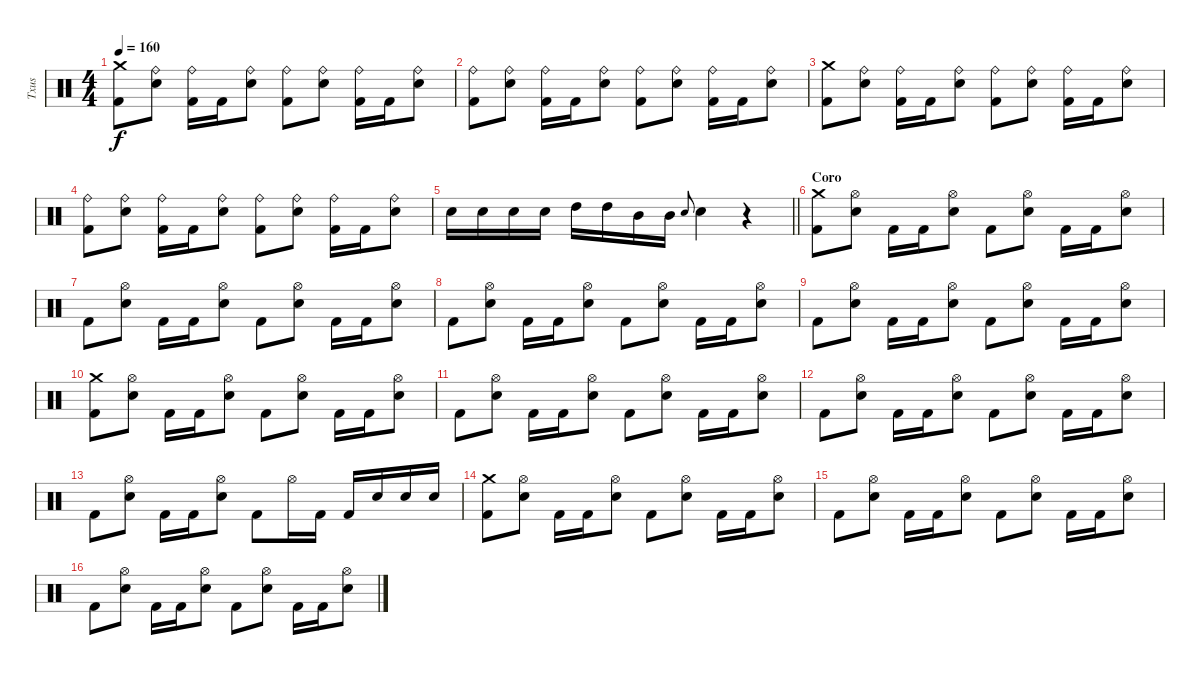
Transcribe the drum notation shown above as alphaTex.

\track ("Txus" "Txus") {instrument percussion}
\staff {score}
\articulation defaults
\ts (4 4)
\tempo 160
\clef neutral
\ks c
("Crash medium (hit)" "Kick (hit) 2").8{dy f} ("Ride (bell)" "Snare (hit) 2").8 ("Ride (bell)" "Kick (hit) 2").16 "Kick (hit) 2".16 ("Ride (bell)" "Snare (hit) 2").8 ("Ride (bell)" "Kick (hit) 2").8 ("Ride (bell)" "Snare (hit) 2").8 ("Ride (bell)" "Kick (hit) 2").16 "Kick (hit) 2".16 ("Ride (bell)" "Snare (hit) 2").8 |
("Ride (bell)" "Kick (hit) 2").8 ("Ride (bell)" "Snare (hit) 2").8 ("Ride (bell)" "Kick (hit) 2").16 "Kick (hit) 2".16 ("Ride (bell)" "Snare (hit) 2").8 ("Ride (bell)" "Kick (hit) 2").8 ("Ride (bell)" "Snare (hit) 2").8 ("Ride (bell)" "Kick (hit) 2").16 "Kick (hit) 2".16 ("Ride (bell)" "Snare (hit) 2").8 |
("Crash medium (hit)" "Kick (hit) 2").8 ("Ride (bell)" "Snare (hit) 2").8 ("Ride (bell)" "Kick (hit) 2").16 "Kick (hit) 2".16 ("Ride (bell)" "Snare (hit) 2").8 ("Ride (bell)" "Kick (hit) 2").8 ("Ride (bell)" "Snare (hit) 2").8 ("Ride (bell)" "Kick (hit) 2").16 "Kick (hit) 2".16 ("Ride (bell)" "Snare (hit) 2").8 |
("Ride (bell)" "Kick (hit) 2").8 ("Ride (bell)" "Snare (hit) 2").8 ("Ride (bell)" "Kick (hit) 2").16 "Kick (hit) 2".16 ("Ride (bell)" "Snare (hit) 2").8 ("Ride (bell)" "Kick (hit) 2").8 ("Ride (bell)" "Snare (hit) 2").8 ("Ride (bell)" "Kick (hit) 2").16 "Kick (hit) 2".16 ("Ride (bell)" "Snare (hit) 2").8 |
\barLineRight lightlight "Snare (hit) 2".16 "Snare (hit) 2".16 "Snare (hit) 2".16 "Snare (hit) 2".16 "High Tom (hit)".16 "High Tom (hit)".16 "Mid Tom (hit)".16 "Mid Tom (hit)".16 "Snare (hit) 2".8{gr onbeat} "Snare (hit) 2".4
r.4 |
\section ("" "Coro")
("Crash medium (hit)" "Kick (hit) 2").8 ("Hi-Hat (open)" "Snare (hit) 2").8 "Kick (hit) 2".16 "Kick (hit) 2".16 ("Hi-Hat (open)" "Snare (hit) 2").8 "Kick (hit) 2".8 ("Hi-Hat (open)" "Snare (hit) 2").8 "Kick (hit) 2".16 "Kick (hit) 2".16 ("Hi-Hat (open)" "Snare (hit) 2").8 |
"Kick (hit) 2".8 ("Hi-Hat (open)" "Snare (hit) 2").8 "Kick (hit) 2".16 "Kick (hit) 2".16 ("Hi-Hat (open)" "Snare (hit) 2").8 "Kick (hit) 2".8 ("Hi-Hat (open)" "Snare (hit) 2").8 "Kick (hit) 2".16 "Kick (hit) 2".16 ("Hi-Hat (open)" "Snare (hit) 2").8 |
"Kick (hit) 2".8 ("Hi-Hat (open)" "Snare (hit) 2").8 "Kick (hit) 2".16 "Kick (hit) 2".16 ("Hi-Hat (open)" "Snare (hit) 2").8 "Kick (hit) 2".8 ("Hi-Hat (open)" "Snare (hit) 2").8 "Kick (hit) 2".16 "Kick (hit) 2".16 ("Hi-Hat (open)" "Snare (hit) 2").8 |
"Kick (hit) 2".8 ("Hi-Hat (open)" "Snare (hit) 2").8 "Kick (hit) 2".16 "Kick (hit) 2".16 ("Hi-Hat (open)" "Snare (hit) 2").8 "Kick (hit) 2".8 ("Hi-Hat (open)" "Snare (hit) 2").8 "Kick (hit) 2".16 "Kick (hit) 2".16 ("Hi-Hat (open)" "Snare (hit) 2").8 |
("Crash medium (hit)" "Kick (hit) 2").8 ("Hi-Hat (open)" "Snare (hit) 2").8 "Kick (hit) 2".16 "Kick (hit) 2".16 ("Hi-Hat (open)" "Snare (hit) 2").8 "Kick (hit) 2".8 ("Hi-Hat (open)" "Snare (hit) 2").8 "Kick (hit) 2".16 "Kick (hit) 2".16 ("Hi-Hat (open)" "Snare (hit) 2").8 |
"Kick (hit) 2".8 ("Hi-Hat (open)" "Snare (hit) 2").8 "Kick (hit) 2".16 "Kick (hit) 2".16 ("Hi-Hat (open)" "Snare (hit) 2").8 "Kick (hit) 2".8 ("Hi-Hat (open)" "Snare (hit) 2").8 "Kick (hit) 2".16 "Kick (hit) 2".16 ("Hi-Hat (open)" "Snare (hit) 2").8 |
"Kick (hit) 2".8 ("Hi-Hat (open)" "Snare (hit) 2").8 "Kick (hit) 2".16 "Kick (hit) 2".16 ("Hi-Hat (open)" "Snare (hit) 2").8 "Kick (hit) 2".8 ("Hi-Hat (open)" "Snare (hit) 2").8 "Kick (hit) 2".16 "Kick (hit) 2".16 ("Hi-Hat (open)" "Snare (hit) 2").8 |
"Kick (hit) 2".8 ("Hi-Hat (open)" "Snare (hit) 2").8 "Kick (hit) 2".16 "Kick (hit) 2".16 ("Hi-Hat (open)" "Snare (hit) 2").8 "Kick (hit) 2".8 "Hi-Hat (open)".16 "Kick (hit) 2".16 "Kick (hit) 2".16 "Snare (hit) 2".16 "Snare (hit) 2".16 "Snare (hit) 2".16 |
("Crash medium (hit)" "Kick (hit) 2").8 ("Hi-Hat (open)" "Snare (hit) 2").8 "Kick (hit) 2".16 "Kick (hit) 2".16 ("Hi-Hat (open)" "Snare (hit) 2").8 "Kick (hit) 2".8 ("Hi-Hat (open)" "Snare (hit) 2").8 "Kick (hit) 2".16 "Kick (hit) 2".16 ("Hi-Hat (open)" "Snare (hit) 2").8 |
"Kick (hit) 2".8 ("Hi-Hat (open)" "Snare (hit) 2").8 "Kick (hit) 2".16 "Kick (hit) 2".16 ("Hi-Hat (open)" "Snare (hit) 2").8 "Kick (hit) 2".8 ("Hi-Hat (open)" "Snare (hit) 2").8 "Kick (hit) 2".16 "Kick (hit) 2".16 ("Hi-Hat (open)" "Snare (hit) 2").8 |
"Kick (hit) 2".8 ("Hi-Hat (open)" "Snare (hit) 2").8 "Kick (hit) 2".16 "Kick (hit) 2".16 ("Hi-Hat (open)" "Snare (hit) 2").8 "Kick (hit) 2".8 ("Hi-Hat (open)" "Snare (hit) 2").8 "Kick (hit) 2".16 "Kick (hit) 2".16 ("Hi-Hat (open)" "Snare (hit) 2").8
